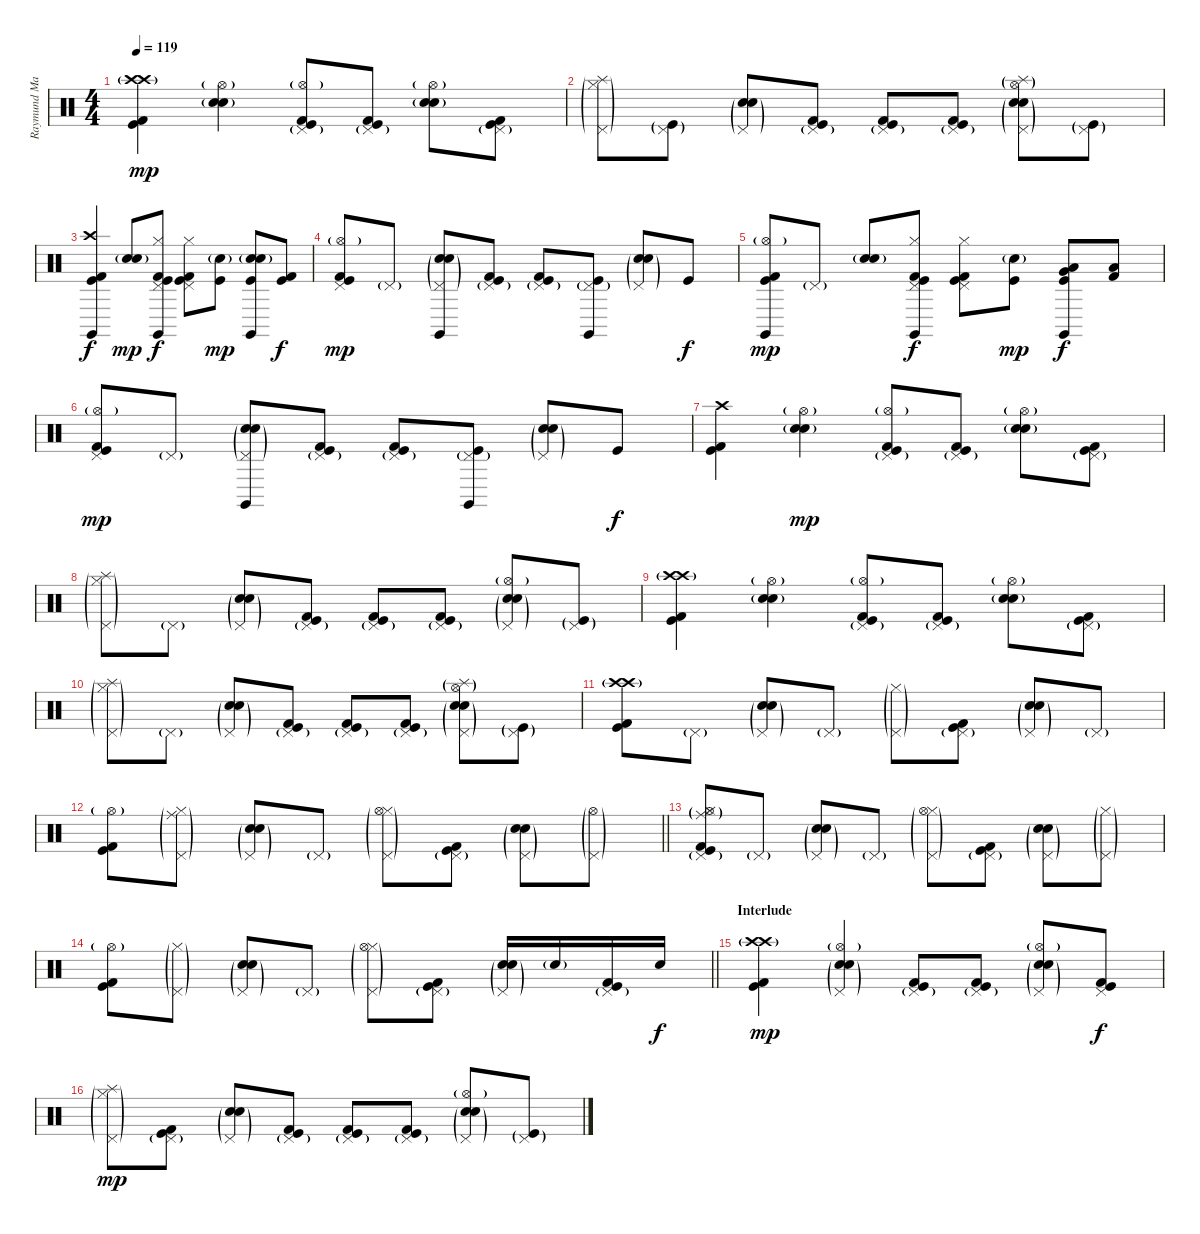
\track ("Raymund Marasigan(Drums)" "Raymund Ma") {instrument percussion}
\staff {score}
\articulation defaults
\ts (4 4)
\tempo 119
\clef neutral
\ks c
("Crash high (hit)"{g} "Crash high (hit)"{g} "Kick (hit) 2" "Kick (hit)").4{dy mp} ("Electric Snare (hit)" "Snare (hit) 2"{g} "Hi-Hat (open)"{g}).4 ("Pedal Hi-Hat (hit)"{g} "Kick (hit) 2" "Kick (hit)" "Hi-Hat (open)"{g}).8 ("Pedal Hi-Hat (hit)"{g} "Kick (hit) 2" "Kick (hit)").8 ("Electric Snare (hit)" "Snare (hit) 2"{g} "Hi-Hat (open)"{g}).8 ("Pedal Hi-Hat (hit)"{g} "Kick (hit) 2" "Kick (hit)").8 |
("Pedal Hi-Hat (hit)"{g} "Hi-Hat (closed)"{g} "Splash (hit)"{g}).8 ("Pedal Hi-Hat (hit)"{g} "Kick (hit)"{g}).8 ("Pedal Hi-Hat (hit)"{g} "Electric Snare (hit)" "Snare (hit) 2"{g}).8 ("Pedal Hi-Hat (hit)"{g} "Kick (hit) 2" "Kick (hit)").8 ("Pedal Hi-Hat (hit)"{g} "Kick (hit) 2" "Kick (hit)").8 ("Pedal Hi-Hat (hit)"{g} "Kick (hit) 2" "Kick (hit)").8 ("Pedal Hi-Hat (hit)"{g} "Electric Snare (hit)" "Snare (hit) 2"{g} "Hi-Hat (open)"{g} "Splash (hit)"{g}).8 ("Pedal Hi-Hat (hit)"{g} "Kick (hit)"{g}).8 |
("Crash high (hit)" "Kick (hit) 2" "Kick (hit)" "Claves (hit)").4{dy f} ("Electric Snare (hit)" "Snare (hit) 2"{g}).8{dy mp} ("Pedal Hi-Hat (hit)" "Hi-Hat (closed)" "Kick (hit) 2" "Kick (hit)" "Claves (hit)").8{dy f} ("Pedal Hi-Hat (hit)" "Hi-Hat (closed)" "Kick (hit) 2" "Kick (hit)").8 ("Kick (hit)" "Electric Snare (hit)"{g}).8{dy mp} ("Kick (hit)" "Electric Snare (hit)" "Snare (hit) 2"{g} "Claves (hit)").8 ("Kick (hit) 2" "Kick (hit)").8{dy f} |
("Pedal Hi-Hat (hit)" "Kick (hit) 2" "Kick (hit)" "Hi-Hat (open)"{g}).8{dy mp} "Pedal Hi-Hat (hit)"{g}.8 ("Pedal Hi-Hat (hit)"{g} "Electric Snare (hit)" "Snare (hit) 2"{g} "Claves (hit)").8 ("Pedal Hi-Hat (hit)"{g} "Kick (hit) 2" "Kick (hit)").8 ("Pedal Hi-Hat (hit)"{g} "Kick (hit) 2" "Kick (hit)").8 ("Pedal Hi-Hat (hit)"{g} "Kick (hit)" "Claves (hit)").8 ("Pedal Hi-Hat (hit)"{g} "Electric Snare (hit)" "Snare (hit) 2"{g}).8 "Kick (hit)".8{dy f} |
("Hi-Hat (open)"{g} "Kick (hit) 2" "Kick (hit)" "Claves (hit)").8{dy mp} "Pedal Hi-Hat (hit)"{g}.8 ("Electric Snare (hit)" "Snare (hit) 2"{g}).8 ("Pedal Hi-Hat (hit)" "Hi-Hat (closed)" "Kick (hit) 2" "Kick (hit)" "Claves (hit)").8{dy f} ("Pedal Hi-Hat (hit)" "Hi-Hat (closed)" "Kick (hit) 2" "Kick (hit)").8 ("Kick (hit)" "Electric Snare (hit)"{g}).8{dy mp} ("Kick (hit)" "Low Tom (hit)" "Very Low Tom (hit)" "Claves (hit)").8{dy f} ("Kick (hit) 2" "Low Floor Tom (hit)").8 |
("Pedal Hi-Hat (hit)" "Kick (hit) 2" "Kick (hit)" "Hi-Hat (open)"{g}).8{dy mp} "Pedal Hi-Hat (hit)"{g}.8 ("Pedal Hi-Hat (hit)"{g} "Electric Snare (hit)" "Snare (hit) 2"{g} "Claves (hit)").8 ("Pedal Hi-Hat (hit)"{g} "Kick (hit) 2" "Kick (hit)").8 ("Pedal Hi-Hat (hit)"{g} "Kick (hit) 2" "Kick (hit)").8 ("Pedal Hi-Hat (hit)"{g} "Kick (hit)" "Claves (hit)").8 ("Pedal Hi-Hat (hit)"{g} "Electric Snare (hit)" "Snare (hit) 2"{g}).8 "Kick (hit)".8{dy f} |
("Crash high (hit)" "Kick (hit) 2" "Kick (hit)").4 ("Electric Snare (hit)" "Snare (hit) 2"{g} "Hi-Hat (open)"{g}).4{dy mp} ("Pedal Hi-Hat (hit)"{g} "Kick (hit) 2" "Kick (hit)" "Hi-Hat (open)"{g}).8 ("Pedal Hi-Hat (hit)"{g} "Kick (hit) 2" "Kick (hit)").8 ("Electric Snare (hit)" "Snare (hit) 2"{g} "Hi-Hat (open)"{g}).8 ("Pedal Hi-Hat (hit)"{g} "Kick (hit) 2" "Kick (hit)").8 |
("Pedal Hi-Hat (hit)"{g} "Hi-Hat (closed)"{g} "Splash (hit)"{g}).8 "Pedal Hi-Hat (hit)"{g}.8 ("Pedal Hi-Hat (hit)"{g} "Electric Snare (hit)" "Snare (hit) 2"{g}).8 ("Pedal Hi-Hat (hit)"{g} "Kick (hit) 2" "Kick (hit)").8 ("Pedal Hi-Hat (hit)"{g} "Kick (hit) 2" "Kick (hit)").8 ("Pedal Hi-Hat (hit)"{g} "Kick (hit) 2" "Kick (hit)").8 ("Pedal Hi-Hat (hit)"{g} "Electric Snare (hit)" "Snare (hit) 2"{g} "Hi-Hat (open)"{g}).8 ("Pedal Hi-Hat (hit)"{g} "Kick (hit)"{g}).8 |
("Crash high (hit)"{g} "Crash high (hit)"{g} "Kick (hit) 2" "Kick (hit)").4 ("Electric Snare (hit)" "Snare (hit) 2"{g} "Hi-Hat (open)"{g}).4 ("Pedal Hi-Hat (hit)"{g} "Kick (hit) 2" "Kick (hit)" "Hi-Hat (open)"{g}).8 ("Pedal Hi-Hat (hit)"{g} "Kick (hit) 2" "Kick (hit)").8 ("Electric Snare (hit)" "Snare (hit) 2"{g} "Hi-Hat (open)"{g}).8 ("Pedal Hi-Hat (hit)"{g} "Kick (hit) 2" "Kick (hit)").8 |
("Pedal Hi-Hat (hit)"{g} "Hi-Hat (closed)"{g} "Splash (hit)"{g}).8 "Pedal Hi-Hat (hit)"{g}.8 ("Pedal Hi-Hat (hit)"{g} "Electric Snare (hit)" "Snare (hit) 2"{g}).8 ("Pedal Hi-Hat (hit)"{g} "Kick (hit) 2" "Kick (hit)").8 ("Pedal Hi-Hat (hit)"{g} "Kick (hit) 2" "Kick (hit)").8 ("Pedal Hi-Hat (hit)"{g} "Kick (hit) 2" "Kick (hit)").8 ("Pedal Hi-Hat (hit)"{g} "Electric Snare (hit)" "Snare (hit) 2"{g} "Hi-Hat (open)"{g} "Splash (hit)"{g}).8 ("Pedal Hi-Hat (hit)"{g} "Kick (hit)"{g}).8 |
("Kick (hit) 2" "Kick (hit)" "Crash high (hit)"{g} "Crash high (hit)"{g}).8 "Pedal Hi-Hat (hit)"{g}.8 ("Pedal Hi-Hat (hit)"{g} "Electric Snare (hit)" "Snare (hit) 2"{g}).8 "Pedal Hi-Hat (hit)"{g}.8 ("Pedal Hi-Hat (hit)"{g} "Hi-Hat (closed)"{g}).8 ("Pedal Hi-Hat (hit)"{g} "Kick (hit) 2" "Kick (hit)").8 ("Pedal Hi-Hat (hit)"{g} "Electric Snare (hit)" "Snare (hit) 2"{g}).8 "Pedal Hi-Hat (hit)"{g}.8 |
\barLineRight lightlight
("Kick (hit) 2" "Kick (hit)" "Hi-Hat (open)"{g}).8 ("Pedal Hi-Hat (hit)"{g} "Hi-Hat (closed)"{g} "Ride (middle)"{g}).8 ("Pedal Hi-Hat (hit)"{g} "Electric Snare (hit)" "Snare (hit) 2"{g}).8 "Pedal Hi-Hat (hit)"{g}.8 ("Pedal Hi-Hat (hit)"{g} "Hi-Hat (closed)"{g} "Hi-Hat (open)"{g}).8 ("Pedal Hi-Hat (hit)"{g} "Kick (hit) 2" "Kick (hit)").8 ("Pedal Hi-Hat (hit)"{g} "Electric Snare (hit)" "Snare (hit) 2"{g}).8 ("Pedal Hi-Hat (hit)"{g} "Hi-Hat (open)"{g}).8 |
("Kick (hit) 2" "Kick (hit)" "Hi-Hat (open)"{g} "Ride (middle)"{g} "Pedal Hi-Hat (hit)"{g} "Hi-Hat (closed)"{g}).8 "Pedal Hi-Hat (hit)"{g}.8 ("Pedal Hi-Hat (hit)"{g} "Electric Snare (hit)" "Snare (hit) 2"{g}).8 "Pedal Hi-Hat (hit)"{g}.8 ("Pedal Hi-Hat (hit)"{g} "Hi-Hat (closed)"{g} "Hi-Hat (open)"{g}).8 ("Pedal Hi-Hat (hit)"{g} "Kick (hit) 2" "Kick (hit)").8 ("Pedal Hi-Hat (hit)"{g} "Electric Snare (hit)" "Snare (hit) 2"{g}).8 ("Pedal Hi-Hat (hit)"{g} "Hi-Hat (closed)"{g}).8 |
\barLineRight lightlight
("Kick (hit) 2" "Kick (hit)" "Hi-Hat (open)"{g}).8 ("Pedal Hi-Hat (hit)"{g} "Hi-Hat (closed)"{g}).8 ("Pedal Hi-Hat (hit)"{g} "Electric Snare (hit)" "Snare (hit) 2"{g}).8 "Pedal Hi-Hat (hit)"{g}.8 ("Pedal Hi-Hat (hit)"{g} "Hi-Hat (closed)"{g} "Hi-Hat (open)"{g}).8 ("Pedal Hi-Hat (hit)"{g} "Kick (hit) 2" "Kick (hit)").8 ("Pedal Hi-Hat (hit)"{g} "Electric Snare (hit)" "Snare (hit) 2"{g}).16 "Electric Snare (hit)"{g}.16 ("Pedal Hi-Hat (hit)"{g} "Kick (hit) 2" "Kick (hit)").16 "Electric Snare (hit)".16{dy f} |
\section ("" "Interlude")
("Crash high (hit)"{g} "Crash high (hit)"{g} "Kick (hit) 2" "Kick (hit)").4{dy mp} ("Pedal Hi-Hat (hit)"{g} "Electric Snare (hit)" "Snare (hit) 2"{g} "Hi-Hat (open)"{g}).4 ("Pedal Hi-Hat (hit)"{g} "Kick (hit) 2" "Kick (hit)").8 ("Pedal Hi-Hat (hit)"{g} "Kick (hit) 2" "Kick (hit)").8 ("Pedal Hi-Hat (hit)"{g} "Electric Snare (hit)" "Snare (hit) 2"{g} "Hi-Hat (open)"{g}).8 ("Pedal Hi-Hat (hit)" "Kick (hit) 2" "Kick (hit)").8{dy f} |
("Pedal Hi-Hat (hit)"{g} "Hi-Hat (closed)"{g} "Splash (hit)"{g}).8{dy mp} ("Pedal Hi-Hat (hit)"{g} "Kick (hit) 2" "Kick (hit)").8 ("Pedal Hi-Hat (hit)"{g} "Electric Snare (hit)" "Snare (hit) 2"{g}).8 ("Pedal Hi-Hat (hit)"{g} "Kick (hit) 2" "Kick (hit)").8 ("Pedal Hi-Hat (hit)"{g} "Kick (hit) 2" "Kick (hit)").8 ("Pedal Hi-Hat (hit)"{g} "Kick (hit) 2" "Kick (hit)").8 ("Pedal Hi-Hat (hit)"{g} "Electric Snare (hit)" "Snare (hit) 2"{g} "Hi-Hat (open)"{g}).8 ("Pedal Hi-Hat (hit)"{g} "Kick (hit)"{g}).8
